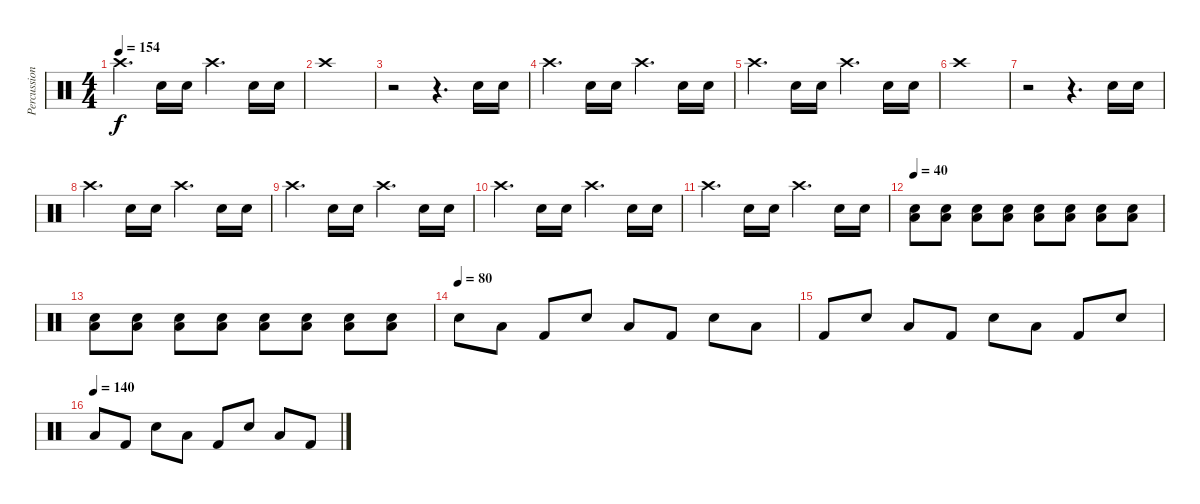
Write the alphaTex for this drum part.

\track ("Percussion" "Percussion") {instrument percussion}
\staff {score}
\articulation defaults
\ts (4 4)
\tempo 154
\clef neutral
\ks c "Crash high (hit)".4{d dy f} "Snare (hit) 2".16 "Snare (hit) 2".16 "Crash high (hit)".4{d} "Snare (hit) 2".16 "Snare (hit) 2".16
|
"Crash high (hit)".1 |
r.2 r.4{d} "Snare (hit) 2".16 "Snare (hit) 2".16 |
"Crash high (hit)".4{d} "Snare (hit) 2".16 "Snare (hit) 2".16 "Crash high (hit)".4{d} "Snare (hit) 2".16 "Snare (hit) 2".16 |
"Crash high (hit)".4{d} "Snare (hit) 2".16 "Snare (hit) 2".16 "Crash high (hit)".4{d} "Snare (hit) 2".16 "Snare (hit) 2".16 |
"Crash high (hit)".1 |
r.2 r.4{d} "Snare (hit) 2".16 "Snare (hit) 2".16 |
"Crash high (hit)".4{d} "Snare (hit) 2".16 "Snare (hit) 2".16 "Crash high (hit)".4{d} "Snare (hit) 2".16 "Snare (hit) 2".16 |
"Crash high (hit)".4{d} "Snare (hit) 2".16 "Snare (hit) 2".16 "Crash high (hit)".4{d} "Snare (hit) 2".16 "Snare (hit) 2".16 |
"Crash high (hit)".4{d} "Snare (hit) 2".16 "Snare (hit) 2".16 "Crash high (hit)".4{d} "Snare (hit) 2".16 "Snare (hit) 2".16 |
"Crash high (hit)".4{d} "Snare (hit) 2".16 "Snare (hit) 2".16 "Crash high (hit)".4{d} "Snare (hit) 2".16 "Snare (hit) 2".16 |
\tempo 40
("Low Tom (hit)" "Snare (hit) 2").8 ("Low Tom (hit)" "Snare (hit) 2").8 ("Low Tom (hit)" "Snare (hit) 2").8 ("Low Tom (hit)" "Snare (hit) 2").8 ("Low Tom (hit)" "Snare (hit) 2").8 ("Low Tom (hit)" "Snare (hit) 2").8 ("Low Tom (hit)" "Snare (hit) 2").8 ("Low Tom (hit)" "Snare (hit) 2").8 |
("Low Tom (hit)" "Snare (hit) 2").8 ("Low Tom (hit)" "Snare (hit) 2").8 ("Low Tom (hit)" "Snare (hit) 2").8 ("Low Tom (hit)" "Snare (hit) 2").8 ("Low Tom (hit)" "Snare (hit) 2").8 ("Low Tom (hit)" "Snare (hit) 2").8 ("Low Tom (hit)" "Snare (hit) 2").8 ("Low Tom (hit)" "Snare (hit) 2").8 |
\tempo (80)
"Snare (hit) 2".8 "Low Tom (hit)".8 "Kick (hit) 2".8 "Snare (hit) 2".8 "Low Tom (hit)".8 "Kick (hit) 2".8 "Snare (hit) 2".8 "Low Tom (hit)".8 |
"Kick (hit) 2".8 "Snare (hit) 2".8 "Low Tom (hit)".8 "Kick (hit) 2".8 "Snare (hit) 2".8 "Low Tom (hit)".8 "Kick (hit) 2".8 "Snare (hit) 2".8 |
\tempo (140)
"Low Tom (hit)".8 "Kick (hit) 2".8 "Snare (hit) 2".8 "Low Tom (hit)".8 "Kick (hit) 2".8 "Snare (hit) 2".8 "Low Tom (hit)".8 "Kick (hit) 2".8
